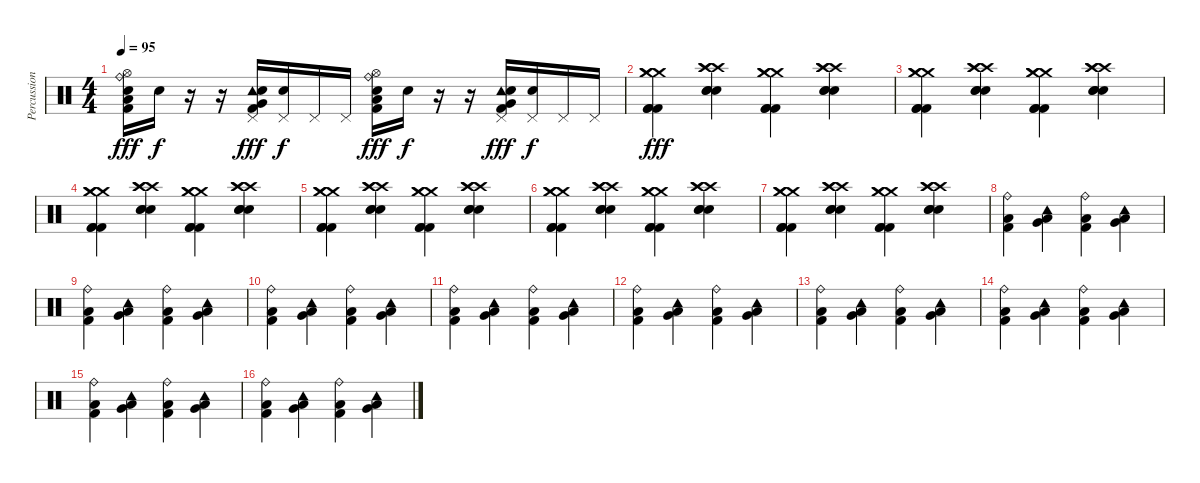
\track ("Percussion" "Percussion") {instrument percussion}
\staff {score}
\articulation defaults
\ts (4 4)
\tempo 95
\clef neutral
\ks c
("Low Floor Tom (hit)" "Kick (hit) 2" "Ride (bell)" "Hi-Hat (open)" "Snare (hit) 2").16{dy fff} "Snare (hit) 2".16{dy f} r.16 r.16 ("Very Low Tom (hit)" "Kick (hit) 2" "Tambourine (hit)" "Pedal Hi-Hat (hit)" "Snare (hit) 2").16{dy fff} ("Pedal Hi-Hat (hit)" "Snare (hit) 2").16{dy f} "Pedal Hi-Hat (hit)".16 "Pedal Hi-Hat (hit)".16 ("Low Floor Tom (hit)" "Kick (hit) 2" "Ride (bell)" "Hi-Hat (open)" "Snare (hit) 2").16{dy fff} "Snare (hit) 2".16{dy f} r.16 r.16 ("Very Low Tom (hit)" "Kick (hit) 2" "Tambourine (hit)" "Pedal Hi-Hat (hit)" "Snare (hit) 2").16{dy fff} ("Pedal Hi-Hat (hit)" "Snare (hit) 2").16{dy f} "Pedal Hi-Hat (hit)".16 "Pedal Hi-Hat (hit)".16 |
("Kick (hit) 2" "Kick (hit) 2" "Kick (hit) 2" "Crash medium (hit)" "Crash medium (hit)" "Crash medium (hit)").4{dy fff} ("Electric Snare (hit)" "Electric Snare (hit)" "Electric Snare (hit)" "Crash high (hit)" "Crash high (hit)" "Crash high (hit)").4 ("Kick (hit) 2" "Kick (hit) 2" "Kick (hit) 2" "Crash medium (hit)" "Crash medium (hit)" "Crash medium (hit)").4 ("Electric Snare (hit)" "Electric Snare (hit)" "Electric Snare (hit)" "Crash high (hit)" "Crash high (hit)" "Crash high (hit)").4 |
("Kick (hit) 2" "Kick (hit) 2" "Kick (hit) 2" "Crash medium (hit)" "Crash medium (hit)" "Crash medium (hit)").4 ("Electric Snare (hit)" "Electric Snare (hit)" "Electric Snare (hit)" "Crash high (hit)" "Crash high (hit)" "Crash high (hit)").4 ("Kick (hit) 2" "Kick (hit) 2" "Kick (hit) 2" "Crash medium (hit)" "Crash medium (hit)" "Crash medium (hit)").4 ("Electric Snare (hit)" "Electric Snare (hit)" "Electric Snare (hit)" "Crash high (hit)" "Crash high (hit)" "Crash high (hit)").4 |
("Kick (hit) 2" "Kick (hit) 2" "Kick (hit) 2" "Crash medium (hit)" "Crash medium (hit)" "Crash medium (hit)").4 ("Electric Snare (hit)" "Electric Snare (hit)" "Electric Snare (hit)" "Crash high (hit)" "Crash high (hit)" "Crash high (hit)").4 ("Kick (hit) 2" "Kick (hit) 2" "Kick (hit) 2" "Crash medium (hit)" "Crash medium (hit)" "Crash medium (hit)").4 ("Electric Snare (hit)" "Electric Snare (hit)" "Electric Snare (hit)" "Crash high (hit)" "Crash high (hit)" "Crash high (hit)").4 |
("Kick (hit) 2" "Kick (hit) 2" "Kick (hit) 2" "Crash medium (hit)" "Crash medium (hit)" "Crash medium (hit)").4 ("Electric Snare (hit)" "Electric Snare (hit)" "Electric Snare (hit)" "Crash high (hit)" "Crash high (hit)" "Crash high (hit)").4 ("Kick (hit) 2" "Kick (hit) 2" "Kick (hit) 2" "Crash medium (hit)" "Crash medium (hit)" "Crash medium (hit)").4 ("Electric Snare (hit)" "Electric Snare (hit)" "Electric Snare (hit)" "Crash high (hit)" "Crash high (hit)" "Crash high (hit)").4 |
("Kick (hit) 2" "Kick (hit) 2" "Kick (hit) 2" "Crash medium (hit)" "Crash medium (hit)" "Crash medium (hit)").4 ("Electric Snare (hit)" "Electric Snare (hit)" "Electric Snare (hit)" "Crash high (hit)" "Crash high (hit)" "Crash high (hit)").4 ("Kick (hit) 2" "Kick (hit) 2" "Kick (hit) 2" "Crash medium (hit)" "Crash medium (hit)" "Crash medium (hit)").4 ("Electric Snare (hit)" "Electric Snare (hit)" "Electric Snare (hit)" "Crash high (hit)" "Crash high (hit)" "Crash high (hit)").4 |
("Kick (hit) 2" "Kick (hit) 2" "Kick (hit) 2" "Crash medium (hit)" "Crash medium (hit)" "Crash medium (hit)").4 ("Electric Snare (hit)" "Electric Snare (hit)" "Electric Snare (hit)" "Crash high (hit)" "Crash high (hit)" "Crash high (hit)").4 ("Kick (hit) 2" "Kick (hit) 2" "Kick (hit) 2" "Crash medium (hit)" "Crash medium (hit)" "Crash medium (hit)").4 ("Electric Snare (hit)" "Electric Snare (hit)" "Electric Snare (hit)" "Crash high (hit)" "Crash high (hit)" "Crash high (hit)").4 |
("Low Floor Tom (hit)" "Kick (hit) 2" "Ride (bell)").4 ("Very Low Tom (hit)" "Low Floor Tom (hit)" "Tambourine (hit)").4 ("Low Floor Tom (hit)" "Kick (hit) 2" "Ride (bell)").4 ("Very Low Tom (hit)" "Low Floor Tom (hit)" "Tambourine (hit)").4 |
("Low Floor Tom (hit)" "Kick (hit) 2" "Ride (bell)").4 ("Very Low Tom (hit)" "Low Floor Tom (hit)" "Tambourine (hit)").4 ("Low Floor Tom (hit)" "Kick (hit) 2" "Ride (bell)").4 ("Very Low Tom (hit)" "Low Floor Tom (hit)" "Tambourine (hit)").4 |
("Low Floor Tom (hit)" "Kick (hit) 2" "Ride (bell)").4 ("Very Low Tom (hit)" "Low Floor Tom (hit)" "Tambourine (hit)").4 ("Low Floor Tom (hit)" "Kick (hit) 2" "Ride (bell)").4 ("Very Low Tom (hit)" "Low Floor Tom (hit)" "Tambourine (hit)").4 |
("Low Floor Tom (hit)" "Kick (hit) 2" "Ride (bell)").4 ("Very Low Tom (hit)" "Low Floor Tom (hit)" "Tambourine (hit)").4 ("Low Floor Tom (hit)" "Kick (hit) 2" "Ride (bell)").4 ("Very Low Tom (hit)" "Low Floor Tom (hit)" "Tambourine (hit)").4 |
("Low Floor Tom (hit)" "Kick (hit) 2" "Ride (bell)").4 ("Very Low Tom (hit)" "Low Floor Tom (hit)" "Tambourine (hit)").4 ("Low Floor Tom (hit)" "Kick (hit) 2" "Ride (bell)").4 ("Very Low Tom (hit)" "Low Floor Tom (hit)" "Tambourine (hit)").4 |
("Low Floor Tom (hit)" "Kick (hit) 2" "Ride (bell)").4 ("Very Low Tom (hit)" "Low Floor Tom (hit)" "Tambourine (hit)").4 ("Low Floor Tom (hit)" "Kick (hit) 2" "Ride (bell)").4 ("Very Low Tom (hit)" "Low Floor Tom (hit)" "Tambourine (hit)").4 |
("Low Floor Tom (hit)" "Kick (hit) 2" "Ride (bell)").4 ("Very Low Tom (hit)" "Low Floor Tom (hit)" "Tambourine (hit)").4 ("Low Floor Tom (hit)" "Kick (hit) 2" "Ride (bell)").4 ("Very Low Tom (hit)" "Low Floor Tom (hit)" "Tambourine (hit)").4 |
("Low Floor Tom (hit)" "Kick (hit) 2" "Ride (bell)").4 ("Very Low Tom (hit)" "Low Floor Tom (hit)" "Tambourine (hit)").4 ("Low Floor Tom (hit)" "Kick (hit) 2" "Ride (bell)").4 ("Very Low Tom (hit)" "Low Floor Tom (hit)" "Tambourine (hit)").4 |
("Low Floor Tom (hit)" "Kick (hit) 2" "Ride (bell)").4 ("Very Low Tom (hit)" "Low Floor Tom (hit)" "Tambourine (hit)").4 ("Low Floor Tom (hit)" "Kick (hit) 2" "Ride (bell)").4 ("Very Low Tom (hit)" "Low Floor Tom (hit)" "Tambourine (hit)").4
